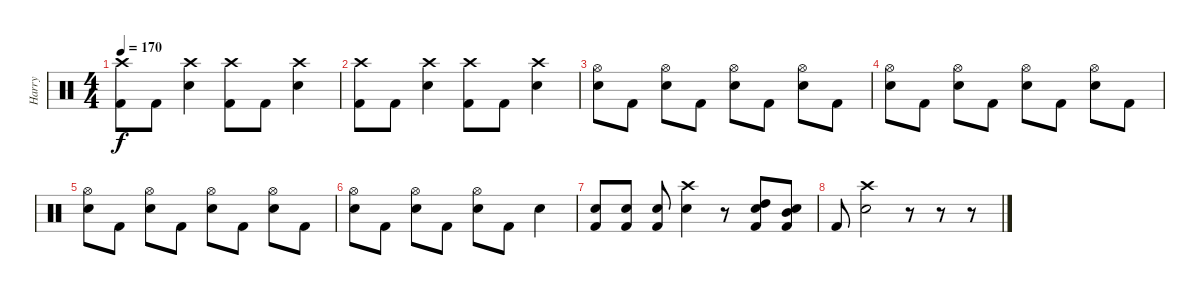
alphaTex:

\track ("Harry" "Harry") {instrument percussion}
\staff {score}
\articulation defaults
\ts (4 4)
\tempo 170
\clef neutral
\ks c
("Kick (hit) 2" "Crash high (hit)").8{dy f} "Kick (hit) 2".8 ("Snare (hit) 2" "Crash high (hit)").4 ("Kick (hit) 2" "Crash high (hit)").8 "Kick (hit) 2".8 ("Snare (hit) 2" "Crash high (hit)").4 |
("Kick (hit) 2" "Crash high (hit)").8 "Kick (hit) 2".8 ("Snare (hit) 2" "Crash high (hit)").4 ("Kick (hit) 2" "Crash high (hit)").8 "Kick (hit) 2".8 ("Snare (hit) 2" "Crash high (hit)").4 |
("Hi-Hat (open)" "Snare (hit) 2").8 "Kick (hit) 2".8 ("Hi-Hat (open)" "Snare (hit) 2").8 "Kick (hit) 2".8 ("Hi-Hat (open)" "Snare (hit) 2").8 "Kick (hit) 2".8 ("Hi-Hat (open)" "Snare (hit) 2").8 "Kick (hit) 2".8 |
("Hi-Hat (open)" "Snare (hit) 2").8 "Kick (hit) 2".8 ("Hi-Hat (open)" "Snare (hit) 2").8 "Kick (hit) 2".8 ("Hi-Hat (open)" "Snare (hit) 2").8 "Kick (hit) 2".8 ("Hi-Hat (open)" "Snare (hit) 2").8 "Kick (hit) 2".8 |
("Hi-Hat (open)" "Snare (hit) 2").8 "Kick (hit) 2".8 ("Hi-Hat (open)" "Snare (hit) 2").8 "Kick (hit) 2".8 ("Hi-Hat (open)" "Snare (hit) 2").8 "Kick (hit) 2".8 ("Hi-Hat (open)" "Snare (hit) 2").8 "Kick (hit) 2".8 |
("Hi-Hat (open)" "Snare (hit) 2").8 "Kick (hit) 2".8 ("Hi-Hat (open)" "Snare (hit) 2").8 "Kick (hit) 2".8 ("Hi-Hat (open)" "Snare (hit) 2").8 "Kick (hit) 2".8 "Snare (hit) 2".4 |
("Kick (hit) 2" "Snare (hit) 2").8 ("Kick (hit) 2" "Snare (hit) 2").8 ("Kick (hit) 2" "Snare (hit) 2").8 ("Crash high (hit)" "Snare (hit) 2").4 r.8 ("Kick (hit) 2" "High Tom (hit)" "Snare (hit) 2").8 ("Kick (hit) 2" "Mid Tom (hit)" "Snare (hit) 2").8 |
"Kick (hit) 2".8 ("Snare (hit) 2" "Crash high (hit)").2 r.8 r.8 r.8
